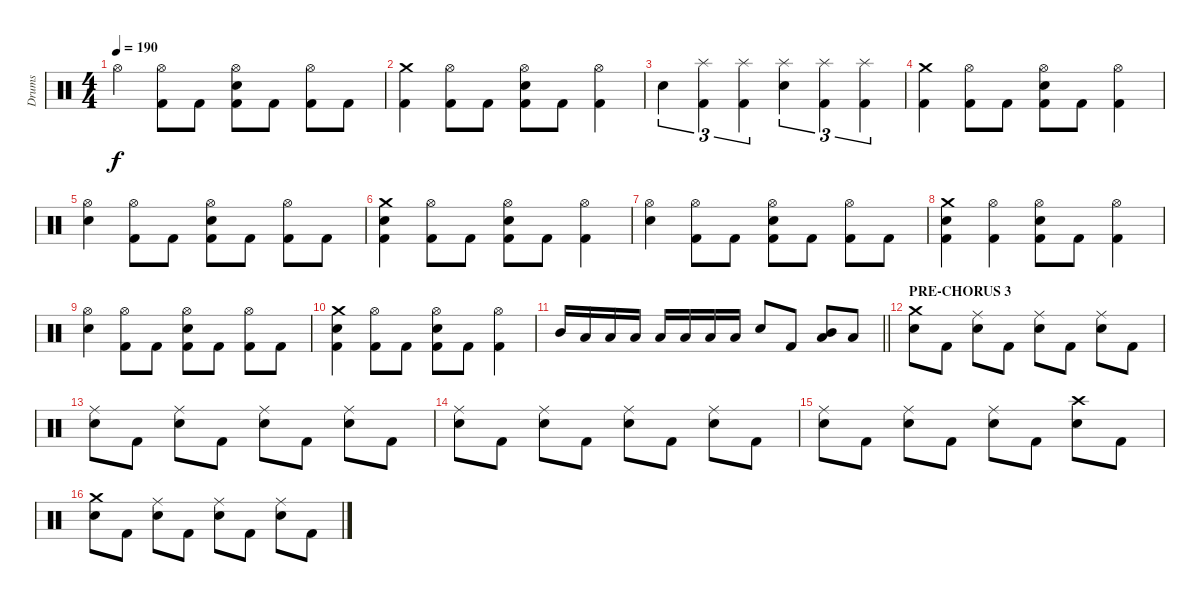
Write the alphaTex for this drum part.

\track ("Drums" "Drums") {instrument percussion}
\staff {score}
\articulation defaults
\ts (4 4)
\tempo 190
\clef neutral
\ks c "Hi-Hat (open)".4{dy f}
("Hi-Hat (open)" "Kick (hit) 2").8 "Kick (hit) 2".8 ("Hi-Hat (open)" "Electric Snare (hit)" "Kick (hit) 2").8 "Kick (hit) 2".8 ("Hi-Hat (open)" "Kick (hit) 2").8 "Kick (hit) 2".8 |
("Crash medium (hit)" "Kick (hit) 2").4 ("Hi-Hat (open)" "Kick (hit) 2").8 "Kick (hit) 2".8 ("Hi-Hat (open)" "Electric Snare (hit)" "Kick (hit) 2").8 "Kick (hit) 2".8 ("Hi-Hat (open)" "Kick (hit) 2").4 |
"Electric Snare (hit)".4{tu (3 2)} ("Splash (hit)" "Kick (hit) 2").4{tu (3 2)} ("Splash (hit)" "Kick (hit) 2").4{tu (3 2)} ("Splash (hit)" "Electric Snare (hit)").4{tu (3 2)} ("Splash (hit)" "Kick (hit) 2").4{tu (3 2)} ("Splash (hit)" "Kick (hit) 2").4{tu (3 2)} |
("Crash medium (hit)" "Kick (hit) 2").4 ("Hi-Hat (open)" "Kick (hit) 2").8 "Kick (hit) 2".8 ("Hi-Hat (open)" "Electric Snare (hit)" "Kick (hit) 2").8 "Kick (hit) 2".8 ("Hi-Hat (open)" "Kick (hit) 2").4 |
("Hi-Hat (open)" "Electric Snare (hit)").4 ("Hi-Hat (open)" "Kick (hit) 2").8 "Kick (hit) 2".8 ("Hi-Hat (open)" "Electric Snare (hit)" "Kick (hit) 2").8 "Kick (hit) 2".8 ("Hi-Hat (open)" "Kick (hit) 2").8 "Kick (hit) 2".8 |
("Crash medium (hit)" "Electric Snare (hit)" "Kick (hit) 2").4 ("Hi-Hat (open)" "Kick (hit) 2").8 "Kick (hit) 2".8 ("Hi-Hat (open)" "Electric Snare (hit)" "Kick (hit) 2").8 "Kick (hit) 2".8 ("Hi-Hat (open)" "Kick (hit) 2").4 |
("Hi-Hat (open)" "Electric Snare (hit)").4 ("Hi-Hat (open)" "Kick (hit) 2").8 "Kick (hit) 2".8 ("Hi-Hat (open)" "Electric Snare (hit)" "Kick (hit) 2").8 "Kick (hit) 2".8 ("Hi-Hat (open)" "Kick (hit) 2").8 "Kick (hit) 2".8 |
("Crash medium (hit)" "Electric Snare (hit)" "Kick (hit) 2").4 ("Hi-Hat (open)" "Kick (hit) 2").4 ("Hi-Hat (open)" "Electric Snare (hit)" "Kick (hit) 2").8 "Kick (hit) 2".8 ("Hi-Hat (open)" "Kick (hit) 2").4 |
("Hi-Hat (open)" "Electric Snare (hit)").4 ("Hi-Hat (open)" "Kick (hit) 2").8 "Kick (hit) 2".8 ("Hi-Hat (open)" "Electric Snare (hit)" "Kick (hit) 2").8 "Kick (hit) 2".8 ("Hi-Hat (open)" "Kick (hit) 2").8 "Kick (hit) 2".8 |
("Crash medium (hit)" "Electric Snare (hit)" "Kick (hit) 2").4 ("Hi-Hat (open)" "Kick (hit) 2").8 "Kick (hit) 2".8 ("Hi-Hat (open)" "Electric Snare (hit)" "Kick (hit) 2").8 "Kick (hit) 2".8 ("Hi-Hat (open)" "Kick (hit) 2").4 |
\barLineRight lightlight "Mid Tom (hit)".16 "Low Tom (hit)".16 "Low Tom (hit)".16 "Low Tom (hit)".16 "Low Tom (hit)".16 "Low Floor Tom (hit)".16 "Low Floor Tom (hit)".16 "Low Floor Tom (hit)".16 "Electric Snare (hit)".8 "Kick (hit) 2".8
("Mid Tom (hit)" "Low Tom (hit)").8 "Low Floor Tom (hit)".8 |
\section ("" "PRE-CHORUS 3")
("Crash medium (hit)" "Electric Snare (hit)").8 "Kick (hit) 2".8 ("Ride (middle)" "Electric Snare (hit)").8 "Kick (hit) 2".8 ("Ride (middle)" "Electric Snare (hit)").8 "Kick (hit) 2".8 ("Ride (middle)" "Electric Snare (hit)").8 "Kick (hit) 2".8 |
("Ride (middle)" "Electric Snare (hit)").8 "Kick (hit) 2".8 ("Ride (middle)" "Electric Snare (hit)").8 "Kick (hit) 2".8 ("Ride (middle)" "Electric Snare (hit)").8 "Kick (hit) 2".8 ("Ride (middle)" "Electric Snare (hit)").8 "Kick (hit) 2".8 |
("Ride (middle)" "Electric Snare (hit)").8 "Kick (hit) 2".8 ("Ride (middle)" "Electric Snare (hit)").8 "Kick (hit) 2".8 ("Ride (middle)" "Electric Snare (hit)").8 "Kick (hit) 2".8 ("Ride (middle)" "Electric Snare (hit)").8 "Kick (hit) 2".8 |
("Ride (middle)" "Electric Snare (hit)").8 "Kick (hit) 2".8 ("Ride (middle)" "Electric Snare (hit)").8 "Kick (hit) 2".8 ("Ride (middle)" "Electric Snare (hit)").8 "Kick (hit) 2".8 ("Crash high (hit)" "Electric Snare (hit)").8 "Kick (hit) 2".8 |
("Crash medium (hit)" "Electric Snare (hit)").8 "Kick (hit) 2".8 ("Ride (middle)" "Electric Snare (hit)").8 "Kick (hit) 2".8 ("Ride (middle)" "Electric Snare (hit)").8 "Kick (hit) 2".8 ("Ride (middle)" "Electric Snare (hit)").8 "Kick (hit) 2".8
